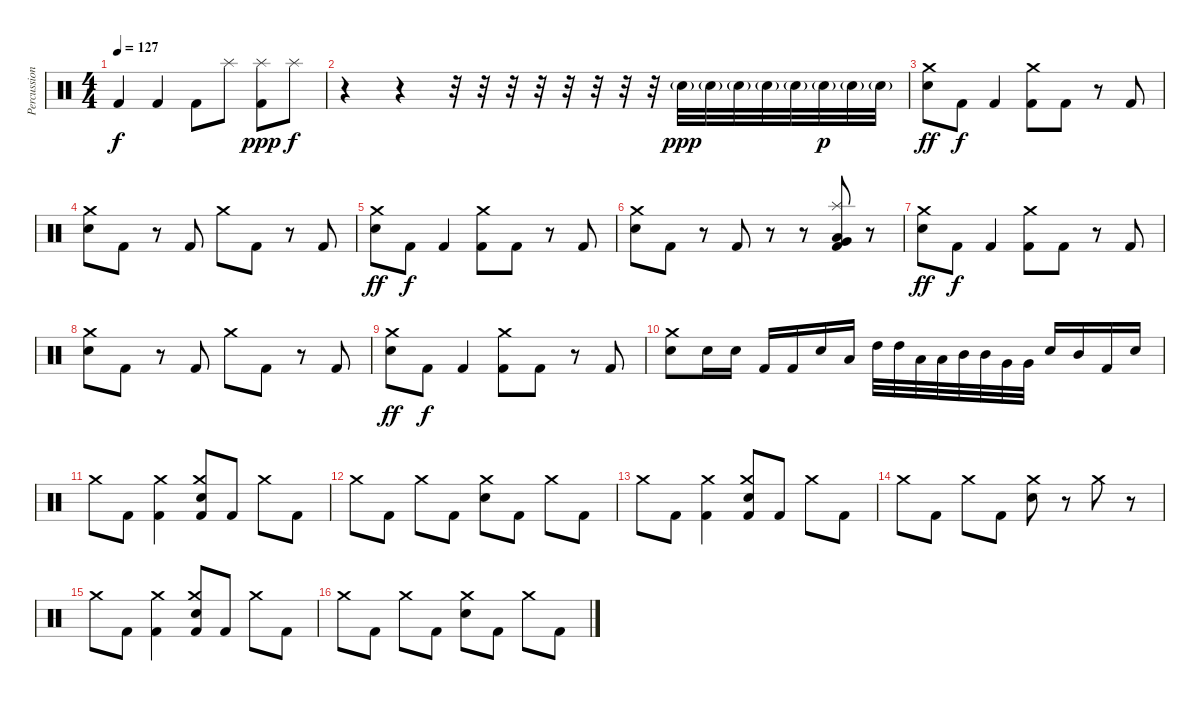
\track ("Percussion" "Percussion") {instrument percussion}
\staff {score}
\articulation defaults
\ts (4 4)
\tempo 127
\clef neutral
\ks c "Kick (hit) 2".4{dy f} "Kick (hit) 2".4 "Kick (hit) 2".8 "Splash (hit)".8
("Splash (hit)" "Kick (hit) 2").8{dy ppp} "Splash (hit)".8{dy f} |
r.4 r.4 r.32 r.32 r.32 r.32 r.32 r.32 r.32 r.32 "Snare (hit) 2"{g}.32{dy ppp} "Snare (hit) 2"{g}.32 "Snare (hit) 2"{g}.32 "Snare (hit) 2"{g}.32 "Snare (hit) 2"{g}.32 "Snare (hit) 2"{g}.32{dy p} "Snare (hit) 2"{g}.32 "Snare (hit) 2"{g}.32 |
("Crash medium (hit)" "Electric Snare (hit)").8{dy ff} "Kick (hit) 2".8{dy f} "Kick (hit) 2".4 ("Crash medium (hit)" "Kick (hit) 2").8 "Kick (hit) 2".8 r.8 "Kick (hit) 2".8 |
("Crash medium (hit)" "Electric Snare (hit)").8 "Kick (hit) 2".8 r.8 "Kick (hit) 2".8 "Crash medium (hit)".8 "Kick (hit) 2".8 r.8 "Kick (hit) 2".8 |
("Crash medium (hit)" "Electric Snare (hit)").8{dy ff} "Kick (hit) 2".8{dy f} "Kick (hit) 2".4 ("Crash medium (hit)" "Kick (hit) 2").8 "Kick (hit) 2".8 r.8 "Kick (hit) 2".8 |
("Crash medium (hit)" "Electric Snare (hit)").8 "Kick (hit) 2".8 r.8 "Kick (hit) 2".8 r.8 r.8 ("Splash (hit)" "Low Floor Tom (hit)" "Very Low Tom (hit)" "Kick (hit) 2").8 r.8 |
("Crash medium (hit)" "Electric Snare (hit)").8{dy ff} "Kick (hit) 2".8{dy f} "Kick (hit) 2".4 ("Crash medium (hit)" "Kick (hit) 2").8 "Kick (hit) 2".8 r.8 "Kick (hit) 2".8 |
("Crash medium (hit)" "Electric Snare (hit)").8 "Kick (hit) 2".8 r.8 "Kick (hit) 2".8 "Crash medium (hit)".8 "Kick (hit) 2".8 r.8 "Kick (hit) 2".8 |
("Crash medium (hit)" "Electric Snare (hit)").8{dy ff} "Kick (hit) 2".8{dy f} "Kick (hit) 2".4 ("Crash medium (hit)" "Kick (hit) 2").8 "Kick (hit) 2".8 r.8 "Kick (hit) 2".8 |
("Crash medium (hit)" "Electric Snare (hit)").8 "Electric Snare (hit)".16 "Electric Snare (hit)".16 "Kick (hit) 2".16 "Kick (hit) 2".16 "Electric Snare (hit)".16 "Low Tom (hit)".16 "High Tom (hit)".32 "High Tom (hit)".32 "Low Tom (hit)".32 "Low Tom (hit)".32 "Mid Tom (hit)".32 "Mid Tom (hit)".32 "Very Low Tom (hit)".32 "Very Low Tom (hit)".32 "Electric Snare (hit)".16 "Mid Tom (hit)".16 "Kick (hit) 2".16 "Electric Snare (hit)".16 |
"Crash medium (hit)".8 "Kick (hit) 2".8 ("Crash medium (hit)" "Kick (hit) 2").4 ("Crash medium (hit)" "Electric Snare (hit)" "Kick (hit) 2").8 "Kick (hit) 2".8 "Crash medium (hit)".8 "Kick (hit) 2".8 |
"Crash medium (hit)".8 "Kick (hit) 2".8 "Crash medium (hit)".8 "Kick (hit) 2".8 ("Crash medium (hit)" "Electric Snare (hit)").8 "Kick (hit) 2".8 "Crash medium (hit)".8 "Kick (hit) 2".8 |
"Crash medium (hit)".8 "Kick (hit) 2".8 ("Crash medium (hit)" "Kick (hit) 2").4 ("Crash medium (hit)" "Electric Snare (hit)" "Kick (hit) 2").8 "Kick (hit) 2".8 "Crash medium (hit)".8 "Kick (hit) 2".8 |
"Crash medium (hit)".8 "Kick (hit) 2".8 "Crash medium (hit)".8 "Kick (hit) 2".8 ("Crash medium (hit)" "Electric Snare (hit)").8 r.8 "Crash medium (hit)".8 r.8 |
"Crash medium (hit)".8 "Kick (hit) 2".8 ("Crash medium (hit)" "Kick (hit) 2").4 ("Crash medium (hit)" "Electric Snare (hit)" "Kick (hit) 2").8 "Kick (hit) 2".8 "Crash medium (hit)".8 "Kick (hit) 2".8 |
"Crash medium (hit)".8 "Kick (hit) 2".8 "Crash medium (hit)".8 "Kick (hit) 2".8 ("Crash medium (hit)" "Electric Snare (hit)").8 "Kick (hit) 2".8 "Crash medium (hit)".8 "Kick (hit) 2".8
